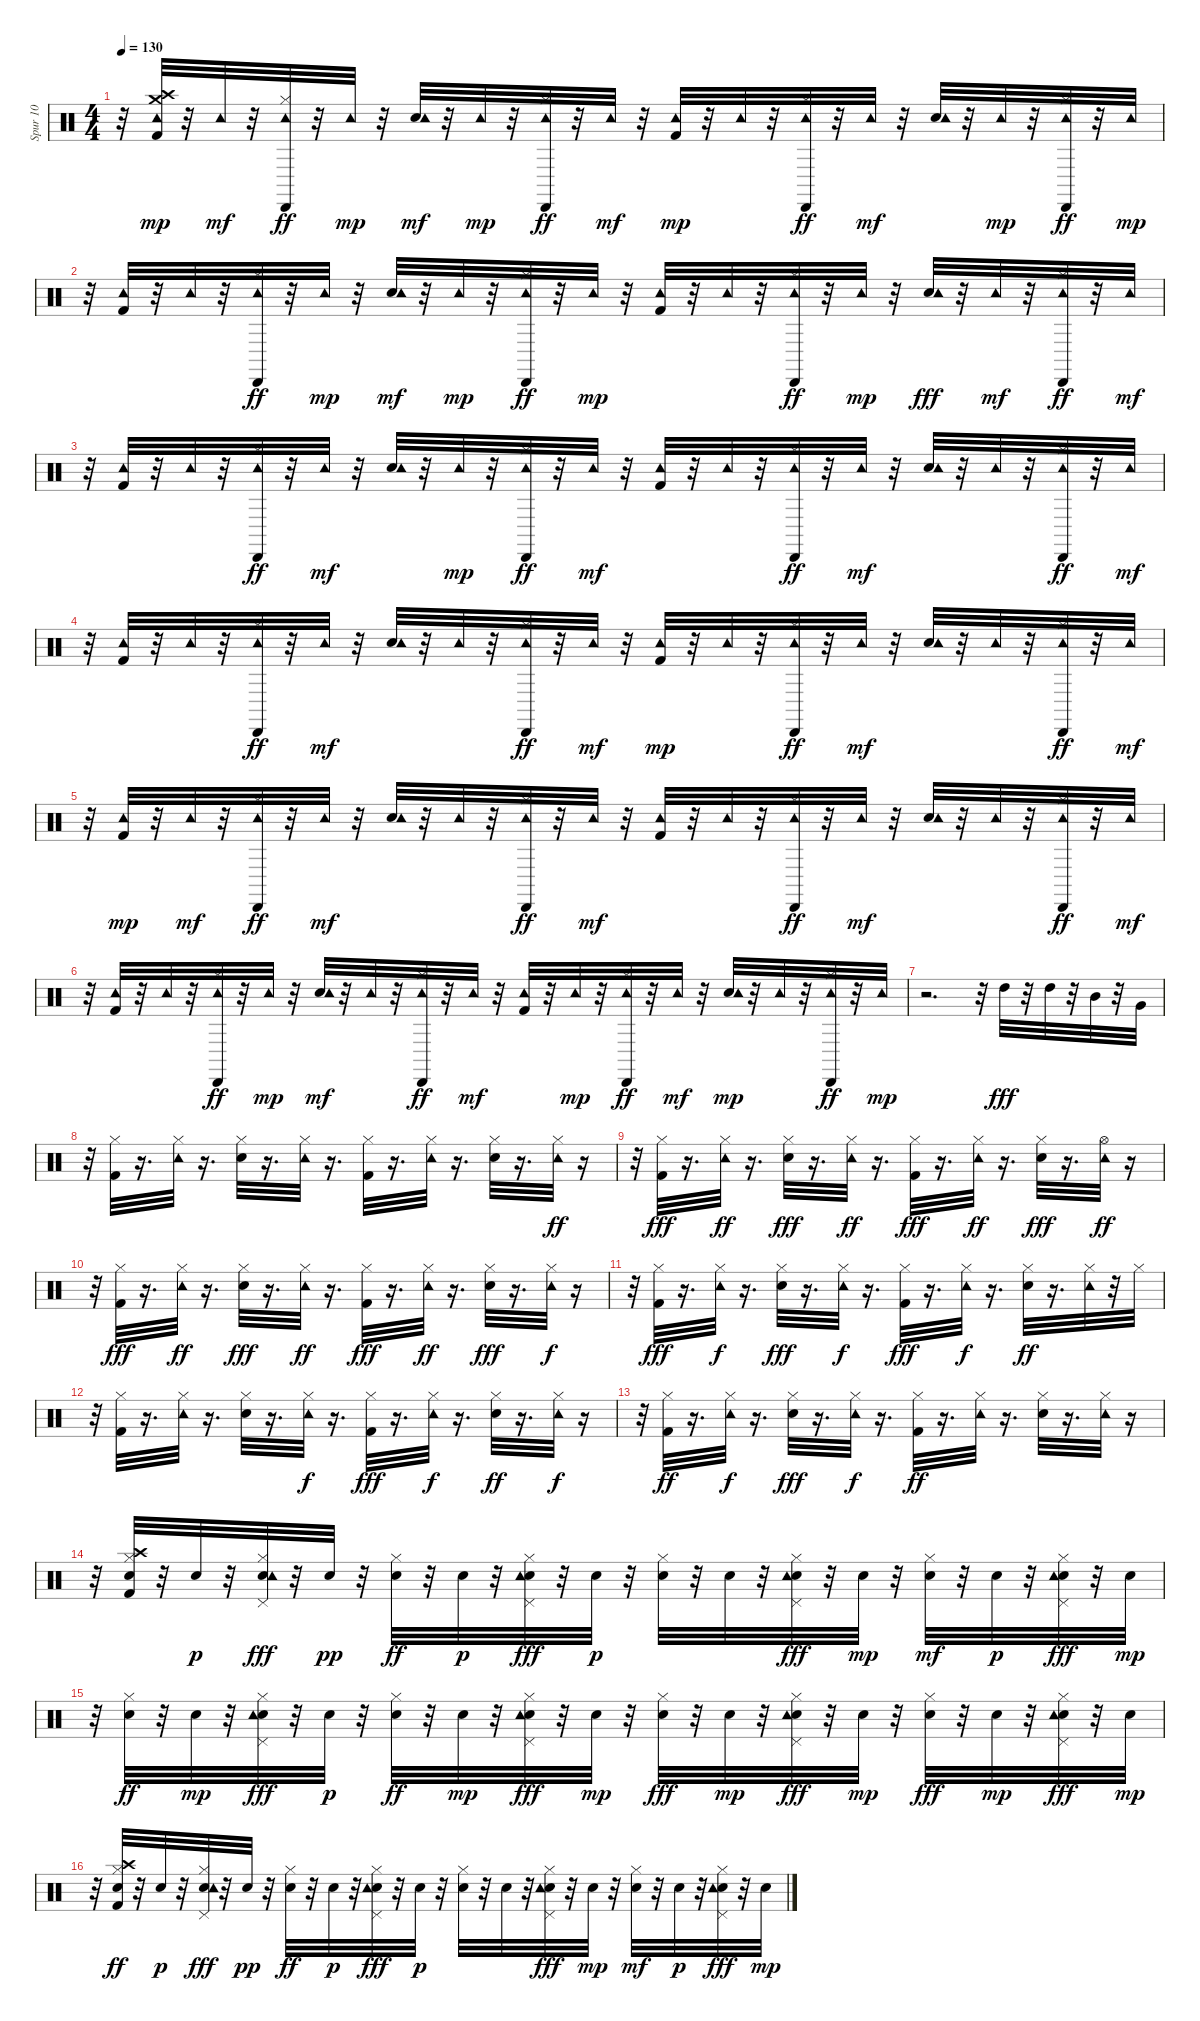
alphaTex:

\track ("Spur 10" "Spur 10") {instrument percussion}
\staff {score}
\articulation defaults
\ts (4 4)
\tempo 130
\clef neutral
\ks c
r.32{dy mf} ("Kick (hit) 2" "Tambourine (hit)" "Crash high (hit)" "Crash medium (hit)").32{dy mp} r.32 "Tambourine (hit)".32{dy mf} r.32 ("Hi-Hat (closed)" "Tambourine (hit)" "Cabasa (hit)").32{dy ff} r.32 "Tambourine (hit)".32{dy mp} r.32 ("Electric Snare (hit)" "Tambourine (hit)").32{dy mf} r.32 "Tambourine (hit)".32{dy mp} r.32 ("Hi-Hat (closed)" "Tambourine (hit)" "Cabasa (hit)").32{dy ff} r.32 "Tambourine (hit)".32{dy mf} r.32 ("Kick (hit) 2" "Tambourine (hit)").32{dy mp} r.32 "Tambourine (hit)".32 r.32 ("Hi-Hat (closed)" "Tambourine (hit)" "Cabasa (hit)").32{dy ff} r.32 "Tambourine (hit)".32{dy mf} r.32 ("Electric Snare (hit)" "Tambourine (hit)").32 r.32 "Tambourine (hit)".32{dy mp} r.32 ("Hi-Hat (closed)" "Tambourine (hit)" "Cabasa (hit)").32{dy ff} r.32 "Tambourine (hit)".32{dy mp} |
r.32 ("Kick (hit) 2" "Tambourine (hit)").32 r.32 "Tambourine (hit)".32 r.32 ("Hi-Hat (closed)" "Tambourine (hit)" "Cabasa (hit)").32{dy ff} r.32 "Tambourine (hit)".32{dy mp} r.32 ("Electric Snare (hit)" "Tambourine (hit)").32{dy mf} r.32 "Tambourine (hit)".32{dy mp} r.32 ("Hi-Hat (closed)" "Tambourine (hit)" "Cabasa (hit)").32{dy ff} r.32 "Tambourine (hit)".32{dy mp} r.32 ("Kick (hit) 2" "Tambourine (hit)").32 r.32 "Tambourine (hit)".32 r.32 ("Hi-Hat (closed)" "Tambourine (hit)" "Cabasa (hit)").32{dy ff} r.32 "Tambourine (hit)".32{dy mp} r.32 ("Electric Snare (hit)" "Tambourine (hit)").32{dy fff} r.32 "Tambourine (hit)".32{dy mf} r.32 ("Hi-Hat (closed)" "Tambourine (hit)" "Cabasa (hit)").32{dy ff} r.32 "Tambourine (hit)".32{dy mf} |
r.32 ("Kick (hit) 2" "Tambourine (hit)").32 r.32 "Tambourine (hit)".32 r.32 ("Hi-Hat (closed)" "Tambourine (hit)" "Cabasa (hit)").32{dy ff} r.32 "Tambourine (hit)".32{dy mf} r.32 ("Electric Snare (hit)" "Tambourine (hit)").32 r.32 "Tambourine (hit)".32{dy mp} r.32 ("Hi-Hat (closed)" "Tambourine (hit)" "Cabasa (hit)").32{dy ff} r.32 "Tambourine (hit)".32{dy mf} r.32 ("Kick (hit) 2" "Tambourine (hit)").32 r.32 "Tambourine (hit)".32 r.32 ("Hi-Hat (closed)" "Tambourine (hit)" "Cabasa (hit)").32{dy ff} r.32 "Tambourine (hit)".32{dy mf} r.32 ("Electric Snare (hit)" "Tambourine (hit)").32 r.32 "Tambourine (hit)".32 r.32 ("Hi-Hat (closed)" "Tambourine (hit)" "Cabasa (hit)").32{dy ff} r.32 "Tambourine (hit)".32{dy mf} |
r.32 ("Kick (hit) 2" "Tambourine (hit)").32 r.32 "Tambourine (hit)".32 r.32 ("Hi-Hat (closed)" "Tambourine (hit)" "Cabasa (hit)").32{dy ff} r.32 "Tambourine (hit)".32{dy mf} r.32 ("Electric Snare (hit)" "Tambourine (hit)").32 r.32 "Tambourine (hit)".32 r.32 ("Hi-Hat (closed)" "Tambourine (hit)" "Cabasa (hit)").32{dy ff} r.32 "Tambourine (hit)".32{dy mf} r.32 ("Kick (hit) 2" "Tambourine (hit)").32{dy mp} r.32 "Tambourine (hit)".32 r.32 ("Hi-Hat (closed)" "Tambourine (hit)" "Cabasa (hit)").32{dy ff} r.32 "Tambourine (hit)".32{dy mf} r.32 ("Electric Snare (hit)" "Tambourine (hit)").32 r.32 "Tambourine (hit)".32 r.32 ("Hi-Hat (closed)" "Tambourine (hit)" "Cabasa (hit)").32{dy ff} r.32 "Tambourine (hit)".32{dy mf} |
r.32 ("Kick (hit) 2" "Tambourine (hit)").32{dy mp} r.32 "Tambourine (hit)".32{dy mf} r.32 ("Hi-Hat (closed)" "Tambourine (hit)" "Cabasa (hit)").32{dy ff} r.32 "Tambourine (hit)".32{dy mf} r.32 ("Electric Snare (hit)" "Tambourine (hit)").32 r.32 "Tambourine (hit)".32 r.32 ("Hi-Hat (closed)" "Tambourine (hit)" "Cabasa (hit)").32{dy ff} r.32 "Tambourine (hit)".32{dy mf} r.32 ("Kick (hit) 2" "Tambourine (hit)").32 r.32 "Tambourine (hit)".32 r.32 ("Hi-Hat (closed)" "Tambourine (hit)" "Cabasa (hit)").32{dy ff} r.32 "Tambourine (hit)".32{dy mf} r.32 ("Electric Snare (hit)" "Tambourine (hit)").32 r.32 "Tambourine (hit)".32 r.32 ("Hi-Hat (closed)" "Tambourine (hit)" "Cabasa (hit)").32{dy ff} r.32 "Tambourine (hit)".32{dy mf} |
r.32 ("Kick (hit) 2" "Tambourine (hit)").32 r.32 "Tambourine (hit)".32 r.32 ("Hi-Hat (closed)" "Tambourine (hit)" "Cabasa (hit)").32{dy ff} r.32 "Tambourine (hit)".32{dy mp} r.32 ("Electric Snare (hit)" "Tambourine (hit)").32{dy mf} r.32 "Tambourine (hit)".32 r.32 ("Hi-Hat (closed)" "Tambourine (hit)" "Cabasa (hit)").32{dy ff} r.32 "Tambourine (hit)".32{dy mf} r.32 ("Kick (hit) 2" "Tambourine (hit)").32 r.32 "Tambourine (hit)".32{dy mp} r.32 ("Hi-Hat (closed)" "Tambourine (hit)" "Cabasa (hit)").32{dy ff} r.32 "Tambourine (hit)".32{dy mf} r.32 ("Electric Snare (hit)" "Tambourine (hit)").32{dy mp} r.32 "Tambourine (hit)".32 r.32 ("Hi-Hat (closed)" "Tambourine (hit)" "Cabasa (hit)").32{dy ff} r.32 "Tambourine (hit)".32{dy mp} |
r.2{d} r.32 "High Tom (hit)".32{dy fff} r.32 "High Tom (hit)".32 r.32 "Mid Tom (hit)".32 r.32 "Very Low Tom (hit)".32 |
r.32 ("Kick (hit) 2" "Hi-Hat (closed)").32 r.16{d} ("Tambourine (hit)" "Hi-Hat (closed)").32 r.16{d} ("Electric Snare (hit)" "Hi-Hat (closed)").32 r.16{d} ("Tambourine (hit)" "Hi-Hat (closed)").32 r.16{d} ("Kick (hit) 2" "Hi-Hat (closed)").32 r.16{d} ("Tambourine (hit)" "Hi-Hat (closed)").32 r.16{d} ("Electric Snare (hit)" "Hi-Hat (closed)").32 r.16{d} ("Tambourine (hit)" "Hi-Hat (closed)").32{dy ff} r.16 |
r.32 ("Kick (hit) 2" "Hi-Hat (closed)").32{dy fff} r.16{d} ("Tambourine (hit)" "Hi-Hat (closed)").32{dy ff} r.16{d} ("Electric Snare (hit)" "Hi-Hat (closed)").32{dy fff} r.16{d} ("Tambourine (hit)" "Hi-Hat (closed)").32{dy ff} r.16{d} ("Kick (hit) 2" "Hi-Hat (closed)").32{dy fff} r.16{d} ("Tambourine (hit)" "Hi-Hat (closed)").32{dy ff} r.16{d} ("Electric Snare (hit)" "Hi-Hat (closed)").32{dy fff} r.16{d} ("Tambourine (hit)" "Hi-Hat (open)").32{dy ff} r.16 |
r.32 ("Kick (hit) 2" "Hi-Hat (closed)").32{dy fff} r.16{d} ("Tambourine (hit)" "Hi-Hat (closed)").32{dy ff} r.16{d} ("Electric Snare (hit)" "Hi-Hat (closed)").32{dy fff} r.16{d} ("Tambourine (hit)" "Hi-Hat (closed)").32{dy ff} r.16{d} ("Kick (hit) 2" "Hi-Hat (closed)").32{dy fff} r.16{d} ("Tambourine (hit)" "Hi-Hat (closed)").32{dy ff} r.16{d} ("Electric Snare (hit)" "Hi-Hat (closed)").32{dy fff} r.16{d} ("Tambourine (hit)" "Hi-Hat (closed)").32{dy f} r.16 |
r.32 ("Kick (hit) 2" "Hi-Hat (closed)").32{dy fff} r.16{d} ("Tambourine (hit)" "Hi-Hat (closed)").32{dy f} r.16{d} ("Electric Snare (hit)" "Hi-Hat (closed)").32{dy fff} r.16{d} ("Tambourine (hit)" "Hi-Hat (closed)").32{dy f} r.16{d} ("Kick (hit) 2" "Hi-Hat (closed)").32{dy fff} r.16{d} ("Tambourine (hit)" "Hi-Hat (closed)").32{dy f} r.16{d} ("Electric Snare (hit)" "Hi-Hat (closed)").32{dy ff} r.16{d} ("Tambourine (hit)" "Hi-Hat (closed)").32 r.32 "Hi-Hat (closed)".32 |
r.32 ("Kick (hit) 2" "Hi-Hat (closed)").32 r.16{d} ("Tambourine (hit)" "Hi-Hat (closed)").32 r.16{d} ("Electric Snare (hit)" "Hi-Hat (closed)").32 r.16{d} ("Tambourine (hit)" "Hi-Hat (closed)").32{dy f} r.16{d} ("Kick (hit) 2" "Hi-Hat (closed)").32{dy fff} r.16{d} ("Tambourine (hit)" "Hi-Hat (closed)").32{dy f} r.16{d} ("Electric Snare (hit)" "Hi-Hat (closed)").32{dy ff} r.16{d} ("Tambourine (hit)" "Hi-Hat (closed)").32{dy f} r.16 |
r.32 ("Kick (hit) 2" "Hi-Hat (closed)").32{dy ff} r.16{d} ("Tambourine (hit)" "Hi-Hat (closed)").32{dy f} r.16{d} ("Electric Snare (hit)" "Hi-Hat (closed)").32{dy fff} r.16{d} ("Tambourine (hit)" "Hi-Hat (closed)").32{dy f} r.16{d} ("Kick (hit) 2" "Hi-Hat (closed)").32{dy ff} r.16{d} ("Tambourine (hit)" "Hi-Hat (closed)").32 r.16{d} ("Electric Snare (hit)" "Hi-Hat (closed)").32 r.16{d} ("Tambourine (hit)" "Hi-Hat (closed)").32 r.16 |
r.32 ("Kick (hit) 2" "Crash high (hit)" "Electric Snare (hit)" "Hi-Hat (closed)").32 r.32 "Electric Snare (hit)".32{dy p} r.32 ("Electric Snare (hit)" "Tambourine (hit)" "Hi-Hat (closed)" "Pedal Hi-Hat (hit)").32{dy fff} r.32 "Electric Snare (hit)".32{dy pp} r.32 ("Electric Snare (hit)" "Hi-Hat (closed)").32{dy ff} r.32 "Electric Snare (hit)".32{dy p} r.32 ("Electric Snare (hit)" "Tambourine (hit)" "Hi-Hat (closed)" "Pedal Hi-Hat (hit)").32{dy fff} r.32 "Electric Snare (hit)".32{dy p} r.32 ("Electric Snare (hit)" "Hi-Hat (closed)").32 r.32 "Electric Snare (hit)".32 r.32 ("Electric Snare (hit)" "Tambourine (hit)" "Hi-Hat (closed)" "Pedal Hi-Hat (hit)").32{dy fff} r.32 "Electric Snare (hit)".32{dy mp} r.32 ("Electric Snare (hit)" "Hi-Hat (closed)").32{dy mf} r.32 "Electric Snare (hit)".32{dy p} r.32 ("Electric Snare (hit)" "Tambourine (hit)" "Hi-Hat (closed)" "Pedal Hi-Hat (hit)").32{dy fff} r.32 "Electric Snare (hit)".32{dy mp} |
r.32 ("Electric Snare (hit)" "Hi-Hat (closed)").32{dy ff} r.32 "Electric Snare (hit)".32{dy mp} r.32 ("Electric Snare (hit)" "Tambourine (hit)" "Hi-Hat (closed)" "Pedal Hi-Hat (hit)").32{dy fff} r.32 "Electric Snare (hit)".32{dy p} r.32 ("Electric Snare (hit)" "Hi-Hat (closed)").32{dy ff} r.32 "Electric Snare (hit)".32{dy mp} r.32 ("Electric Snare (hit)" "Tambourine (hit)" "Hi-Hat (closed)" "Pedal Hi-Hat (hit)").32{dy fff} r.32 "Electric Snare (hit)".32{dy mp} r.32 ("Electric Snare (hit)" "Hi-Hat (closed)").32{dy fff} r.32 "Electric Snare (hit)".32{dy mp} r.32 ("Electric Snare (hit)" "Tambourine (hit)" "Hi-Hat (closed)" "Pedal Hi-Hat (hit)").32{dy fff} r.32 "Electric Snare (hit)".32{dy mp} r.32 ("Electric Snare (hit)" "Hi-Hat (closed)").32{dy fff} r.32 "Electric Snare (hit)".32{dy mp} r.32 ("Electric Snare (hit)" "Tambourine (hit)" "Hi-Hat (closed)" "Pedal Hi-Hat (hit)").32{dy fff} r.32 "Electric Snare (hit)".32{dy mp} |
r.32 ("Kick (hit) 2" "Crash high (hit)" "Electric Snare (hit)" "Hi-Hat (closed)").32{dy ff} r.32 "Electric Snare (hit)".32{dy p} r.32 ("Electric Snare (hit)" "Tambourine (hit)" "Hi-Hat (closed)" "Pedal Hi-Hat (hit)").32{dy fff} r.32 "Electric Snare (hit)".32{dy pp} r.32 ("Electric Snare (hit)" "Hi-Hat (closed)").32{dy ff} r.32 "Electric Snare (hit)".32{dy p} r.32 ("Electric Snare (hit)" "Tambourine (hit)" "Hi-Hat (closed)" "Pedal Hi-Hat (hit)").32{dy fff} r.32 "Electric Snare (hit)".32{dy p} r.32 ("Electric Snare (hit)" "Hi-Hat (closed)").32 r.32 "Electric Snare (hit)".32 r.32 ("Electric Snare (hit)" "Tambourine (hit)" "Hi-Hat (closed)" "Pedal Hi-Hat (hit)").32{dy fff} r.32 "Electric Snare (hit)".32{dy mp} r.32 ("Electric Snare (hit)" "Hi-Hat (closed)").32{dy mf} r.32 "Electric Snare (hit)".32{dy p} r.32 ("Electric Snare (hit)" "Tambourine (hit)" "Hi-Hat (closed)" "Pedal Hi-Hat (hit)").32{dy fff} r.32 "Electric Snare (hit)".32{dy mp}
